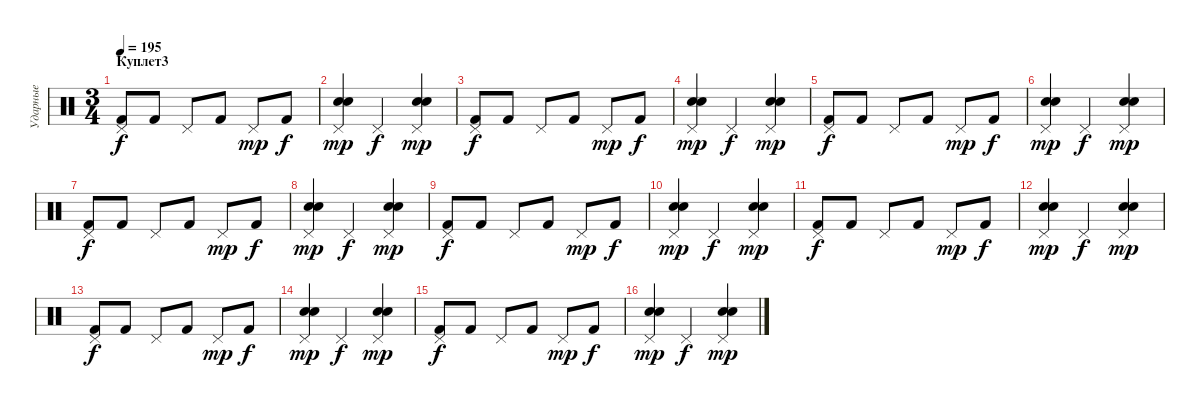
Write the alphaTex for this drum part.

\track ("Ударные" "Ударные") {instrument percussion}
\staff {score}
\articulation defaults
\ts (3 4)
\section ("" "Куплет3")
\tempo 195
\clef neutral
\ks c
("Pedal Hi-Hat (hit)" "Kick (hit) 2").8{dy f} "Kick (hit) 2".8 "Pedal Hi-Hat (hit)".8 "Kick (hit) 2".8 "Pedal Hi-Hat (hit)".8{dy mp} "Kick (hit) 2".8{dy f} |
("Pedal Hi-Hat (hit)" "Electric Snare (hit)" "Snare (hit) 2").4{dy mp} "Pedal Hi-Hat (hit)".4{dy f} ("Pedal Hi-Hat (hit)" "Electric Snare (hit)" "Snare (hit) 2").4{dy mp} |
("Pedal Hi-Hat (hit)" "Kick (hit) 2").8{dy f} "Kick (hit) 2".8 "Pedal Hi-Hat (hit)".8 "Kick (hit) 2".8 "Pedal Hi-Hat (hit)".8{dy mp} "Kick (hit) 2".8{dy f} |
("Pedal Hi-Hat (hit)" "Electric Snare (hit)" "Snare (hit) 2").4{dy mp} "Pedal Hi-Hat (hit)".4{dy f} ("Pedal Hi-Hat (hit)" "Electric Snare (hit)" "Snare (hit) 2").4{dy mp} |
("Pedal Hi-Hat (hit)" "Kick (hit) 2").8{dy f} "Kick (hit) 2".8 "Pedal Hi-Hat (hit)".8 "Kick (hit) 2".8 "Pedal Hi-Hat (hit)".8{dy mp} "Kick (hit) 2".8{dy f} |
("Pedal Hi-Hat (hit)" "Electric Snare (hit)" "Snare (hit) 2").4{dy mp} "Pedal Hi-Hat (hit)".4{dy f} ("Pedal Hi-Hat (hit)" "Electric Snare (hit)" "Snare (hit) 2").4{dy mp} |
("Pedal Hi-Hat (hit)" "Kick (hit) 2").8{dy f} "Kick (hit) 2".8 "Pedal Hi-Hat (hit)".8 "Kick (hit) 2".8 "Pedal Hi-Hat (hit)".8{dy mp} "Kick (hit) 2".8{dy f} |
("Pedal Hi-Hat (hit)" "Electric Snare (hit)" "Snare (hit) 2").4{dy mp} "Pedal Hi-Hat (hit)".4{dy f} ("Pedal Hi-Hat (hit)" "Electric Snare (hit)" "Snare (hit) 2").4{dy mp} |
("Pedal Hi-Hat (hit)" "Kick (hit) 2").8{dy f} "Kick (hit) 2".8 "Pedal Hi-Hat (hit)".8 "Kick (hit) 2".8 "Pedal Hi-Hat (hit)".8{dy mp} "Kick (hit) 2".8{dy f} |
("Pedal Hi-Hat (hit)" "Electric Snare (hit)" "Snare (hit) 2").4{dy mp} "Pedal Hi-Hat (hit)".4{dy f} ("Pedal Hi-Hat (hit)" "Electric Snare (hit)" "Snare (hit) 2").4{dy mp} |
("Pedal Hi-Hat (hit)" "Kick (hit) 2").8{dy f} "Kick (hit) 2".8 "Pedal Hi-Hat (hit)".8 "Kick (hit) 2".8 "Pedal Hi-Hat (hit)".8{dy mp} "Kick (hit) 2".8{dy f} |
("Pedal Hi-Hat (hit)" "Electric Snare (hit)" "Snare (hit) 2").4{dy mp} "Pedal Hi-Hat (hit)".4{dy f} ("Pedal Hi-Hat (hit)" "Electric Snare (hit)" "Snare (hit) 2").4{dy mp} |
("Pedal Hi-Hat (hit)" "Kick (hit) 2").8{dy f} "Kick (hit) 2".8 "Pedal Hi-Hat (hit)".8 "Kick (hit) 2".8 "Pedal Hi-Hat (hit)".8{dy mp} "Kick (hit) 2".8{dy f} |
("Pedal Hi-Hat (hit)" "Electric Snare (hit)" "Snare (hit) 2").4{dy mp} "Pedal Hi-Hat (hit)".4{dy f} ("Pedal Hi-Hat (hit)" "Electric Snare (hit)" "Snare (hit) 2").4{dy mp} |
("Pedal Hi-Hat (hit)" "Kick (hit) 2").8{dy f} "Kick (hit) 2".8 "Pedal Hi-Hat (hit)".8 "Kick (hit) 2".8 "Pedal Hi-Hat (hit)".8{dy mp} "Kick (hit) 2".8{dy f} |
("Pedal Hi-Hat (hit)" "Electric Snare (hit)" "Snare (hit) 2").4{dy mp} "Pedal Hi-Hat (hit)".4{dy f} ("Pedal Hi-Hat (hit)" "Electric Snare (hit)" "Snare (hit) 2").4{dy mp}
